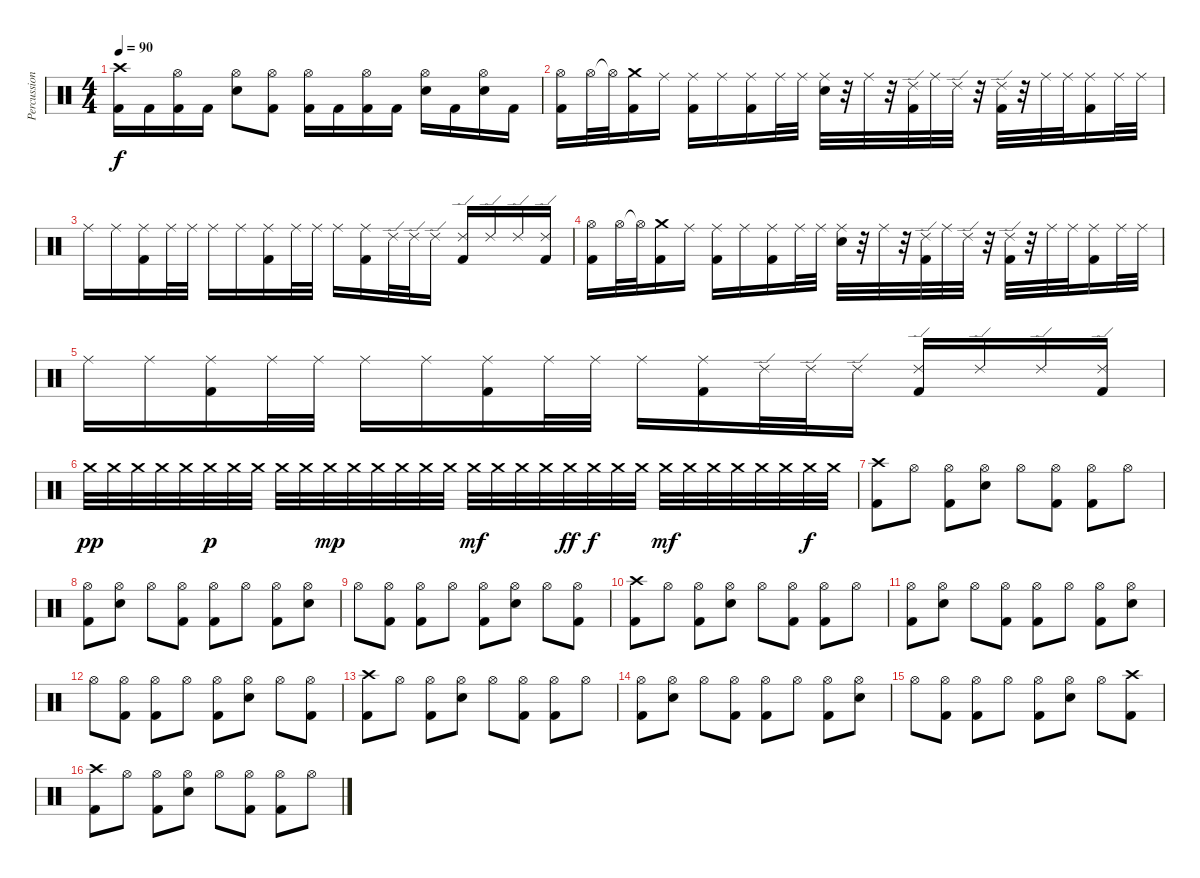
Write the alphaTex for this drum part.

\track ("Percussion" "Percussion") {instrument percussion}
\staff {score}
\articulation defaults
\ts (4 4)
\tempo 90
\clef neutral
\ks c
("Crash high (hit)" "Kick (hit) 2").16{dy f} "Kick (hit) 2".16 ("Hi-Hat (open)" "Kick (hit) 2").16 "Kick (hit) 2".16 ("Hi-Hat (open)" "Snare (hit) 2").8 ("Hi-Hat (open)" "Kick (hit) 2").8 ("Hi-Hat (open)" "Kick (hit) 2").16 "Kick (hit) 2".16 ("Hi-Hat (open)" "Kick (hit) 2").16 "Kick (hit) 2".16 ("Hi-Hat (open)" "Snare (hit) 2").16 "Kick (hit) 2".16 ("Hi-Hat (open)" "Snare (hit) 2").16 "Kick (hit) 2".16 |
("Hi-Hat (open)" "Kick (hit) 2").16 "Hi-Hat (open)".32 "Hi-Hat (open)"{t}.32 ("Crash medium (hit)" "Kick (hit) 2").16 "Ride (middle)".16 ("Ride (middle)" "Kick (hit) 2").16 "Ride (middle)".16 ("Ride (middle)" "Kick (hit) 2").16 "Ride (middle)".32 "Ride (middle)".32 ("Ride (middle)" "Snare (hit) 2").32 r.32 "Ride (middle)".32 r.32 ("Ride (edge) 2" "Kick (hit) 2").32 "Ride (middle)".32 "Ride (edge) 2".32 r.32 ("Ride (edge) 2" "Kick (hit) 2").32 r.32 "Ride (middle)".32 "Ride (middle)".32 ("Ride (middle)" "Kick (hit) 2").16 "Ride (middle)".32 "Ride (middle)".32 |
"Ride (middle)".16 "Ride (middle)".16 ("Ride (middle)" "Kick (hit) 2").16 "Ride (middle)".32 "Ride (middle)".32 "Ride (middle)".16 "Ride (middle)".16 ("Ride (middle)" "Kick (hit) 2").16 "Ride (middle)".32 "Ride (middle)".32 "Ride (middle)".16 ("Ride (middle)" "Kick (hit) 2").16 "Ride (edge) 2".32 "Ride (edge) 2".32 "Ride (edge) 2".16 ("Ride (edge) 2" "Kick (hit) 2").16 "Ride (edge) 2".16 "Ride (edge) 2".16 ("Ride (edge) 2" "Kick (hit) 2").16 |
("Hi-Hat (open)" "Kick (hit) 2").16 "Hi-Hat (open)".32 "Hi-Hat (open)"{t}.32 ("Crash medium (hit)" "Kick (hit) 2").16 "Ride (middle)".16 ("Ride (middle)" "Kick (hit) 2").16 "Ride (middle)".16 ("Ride (middle)" "Kick (hit) 2").16 "Ride (middle)".32 "Ride (middle)".32 ("Ride (middle)" "Snare (hit) 2").32 r.32 "Ride (middle)".32 r.32 ("Ride (edge) 2" "Kick (hit) 2").32 "Ride (middle)".32 "Ride (edge) 2".32 r.32 ("Ride (edge) 2" "Kick (hit) 2").32 r.32 "Ride (middle)".32 "Ride (middle)".32 ("Ride (middle)" "Kick (hit) 2").16 "Ride (middle)".32 "Ride (middle)".32 |
"Ride (middle)".16 "Ride (middle)".16 ("Ride (middle)" "Kick (hit) 2").16 "Ride (middle)".32 "Ride (middle)".32 "Ride (middle)".16 "Ride (middle)".16 ("Ride (middle)" "Kick (hit) 2").16 "Ride (middle)".32 "Ride (middle)".32 "Ride (middle)".16 ("Ride (middle)" "Kick (hit) 2").16 "Ride (edge) 2".32 "Ride (edge) 2".32 "Ride (edge) 2".16 ("Ride (edge) 2" "Kick (hit) 2").16 "Ride (edge) 2".16 "Ride (edge) 2".16 ("Ride (edge) 2" "Kick (hit) 2").16 |
"Crash medium (hit)".32{dy pp} "Crash medium (hit)".32 "Crash medium (hit)".32 "Crash medium (hit)".32 "Crash medium (hit)".32 "Crash medium (hit)".32{dy p} "Crash medium (hit)".32 "Crash medium (hit)".32 "Crash medium (hit)".32 "Crash medium (hit)".32 "Crash medium (hit)".32{dy mp} "Crash medium (hit)".32 "Crash medium (hit)".32 "Crash medium (hit)".32 "Crash medium (hit)".32 "Crash medium (hit)".32 "Crash medium (hit)".32{dy mf} "Crash medium (hit)".32 "Crash medium (hit)".32 "Crash medium (hit)".32 "Crash medium (hit)".32{dy ff} "Crash medium (hit)".32{dy f} "Crash medium (hit)".32 "Crash medium (hit)".32 "Crash medium (hit)".32{dy mf} "Crash medium (hit)".32 "Crash medium (hit)".32 "Crash medium (hit)".32 "Crash medium (hit)".32 "Crash medium (hit)".32 "Crash medium (hit)".32{dy f} "Crash medium (hit)".32 |
("Crash high (hit)" "Kick (hit) 2").8 "Hi-Hat (open)".8 ("Hi-Hat (open)" "Kick (hit) 2").8 ("Hi-Hat (open)" "Snare (hit) 2").8 "Hi-Hat (open)".8 ("Hi-Hat (open)" "Kick (hit) 2").8 ("Hi-Hat (open)" "Kick (hit) 2").8 "Hi-Hat (open)".8 |
("Hi-Hat (open)" "Kick (hit) 2").8 ("Hi-Hat (open)" "Snare (hit) 2").8 "Hi-Hat (open)".8 ("Hi-Hat (open)" "Kick (hit) 2").8 ("Hi-Hat (open)" "Kick (hit) 2").8 "Hi-Hat (open)".8 ("Hi-Hat (open)" "Kick (hit) 2").8 ("Hi-Hat (open)" "Snare (hit) 2").8 |
"Hi-Hat (open)".8 ("Hi-Hat (open)" "Kick (hit) 2").8 ("Hi-Hat (open)" "Kick (hit) 2").8 "Hi-Hat (open)".8 ("Hi-Hat (open)" "Kick (hit) 2").8 ("Hi-Hat (open)" "Snare (hit) 2").8 "Hi-Hat (open)".8 ("Hi-Hat (open)" "Kick (hit) 2").8 |
("Crash high (hit)" "Kick (hit) 2").8 "Hi-Hat (open)".8 ("Hi-Hat (open)" "Kick (hit) 2").8 ("Hi-Hat (open)" "Snare (hit) 2").8 "Hi-Hat (open)".8 ("Hi-Hat (open)" "Kick (hit) 2").8 ("Hi-Hat (open)" "Kick (hit) 2").8 "Hi-Hat (open)".8 |
("Hi-Hat (open)" "Kick (hit) 2").8 ("Hi-Hat (open)" "Snare (hit) 2").8 "Hi-Hat (open)".8 ("Hi-Hat (open)" "Kick (hit) 2").8 ("Hi-Hat (open)" "Kick (hit) 2").8 "Hi-Hat (open)".8 ("Hi-Hat (open)" "Kick (hit) 2").8 ("Hi-Hat (open)" "Snare (hit) 2").8 |
"Hi-Hat (open)".8 ("Hi-Hat (open)" "Kick (hit) 2").8 ("Hi-Hat (open)" "Kick (hit) 2").8 "Hi-Hat (open)".8 ("Hi-Hat (open)" "Kick (hit) 2").8 ("Hi-Hat (open)" "Snare (hit) 2").8 "Hi-Hat (open)".8 ("Hi-Hat (open)" "Kick (hit) 2").8 |
("Crash high (hit)" "Kick (hit) 2").8 "Hi-Hat (open)".8 ("Hi-Hat (open)" "Kick (hit) 2").8 ("Hi-Hat (open)" "Snare (hit) 2").8 "Hi-Hat (open)".8 ("Hi-Hat (open)" "Kick (hit) 2").8 ("Hi-Hat (open)" "Kick (hit) 2").8 "Hi-Hat (open)".8 |
("Hi-Hat (open)" "Kick (hit) 2").8 ("Hi-Hat (open)" "Snare (hit) 2").8 "Hi-Hat (open)".8 ("Hi-Hat (open)" "Kick (hit) 2").8 ("Hi-Hat (open)" "Kick (hit) 2").8 "Hi-Hat (open)".8 ("Hi-Hat (open)" "Kick (hit) 2").8 ("Hi-Hat (open)" "Snare (hit) 2").8 |
"Hi-Hat (open)".8 ("Hi-Hat (open)" "Kick (hit) 2").8 ("Hi-Hat (open)" "Kick (hit) 2").8 "Hi-Hat (open)".8 ("Hi-Hat (open)" "Kick (hit) 2").8 ("Hi-Hat (open)" "Snare (hit) 2").8 "Hi-Hat (open)".8 ("Crash high (hit)" "Kick (hit) 2").8 |
("Crash high (hit)" "Kick (hit) 2").8 "Hi-Hat (open)".8 ("Hi-Hat (open)" "Kick (hit) 2").8 ("Hi-Hat (open)" "Snare (hit) 2").8 "Hi-Hat (open)".8 ("Hi-Hat (open)" "Kick (hit) 2").8 ("Hi-Hat (open)" "Kick (hit) 2").8 "Hi-Hat (open)".8
